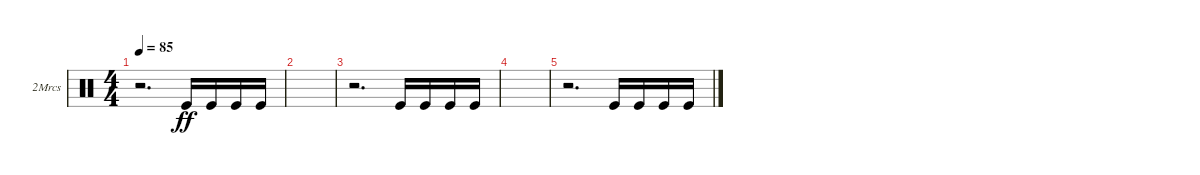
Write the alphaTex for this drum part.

\defaultSystemsLayout 4
\bracketExtendMode groupsimilarinstruments
\firstSystemTrackNameOrientation horizontal
\otherSystemsTrackNameOrientation horizontal
\track ("2 Hands Maracas" "2Mrcs") {instrument percussion}
\staff {score}
\articulation defaults
\ts (4 4)
\tempo 85
\clef neutral
\ks c
r.2{d dy ff} "Kick (hit)".16 "Kick (hit)".16 "Kick (hit)".16 "Kick (hit)".16 |
|
r.2{d} "Kick (hit)".16 "Kick (hit)".16 "Kick (hit)".16 "Kick (hit)".16 |
|
r.2{d} "Kick (hit)".16 "Kick (hit)".16 "Kick (hit)".16 "Kick (hit)".16
